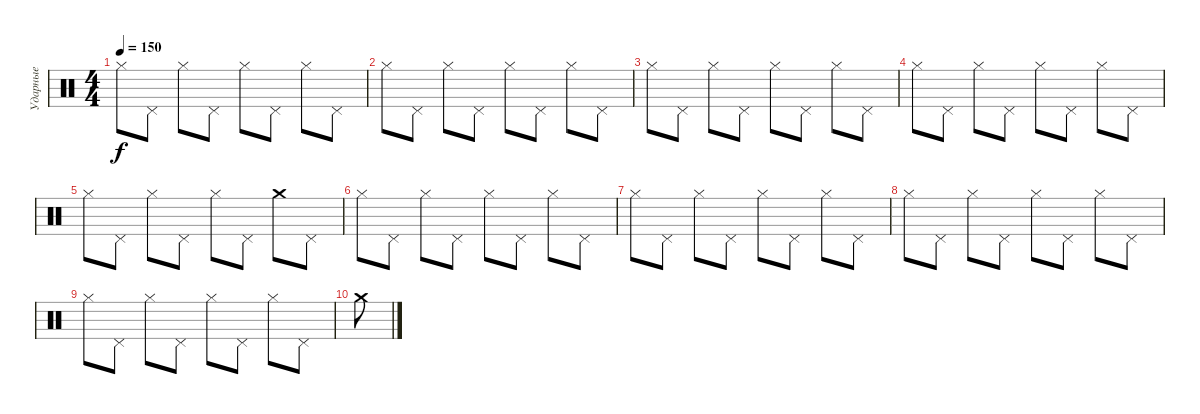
\track ("Ударные" "Ударные") {instrument percussion}
\staff {score}
\articulation defaults
\ts (4 4)
\tempo 150
\clef neutral
\ks c "Hi-Hat (closed)".8{dy f} "Pedal Hi-Hat (hit)".8 "Hi-Hat (closed)".8 "Pedal Hi-Hat (hit)".8 "Hi-Hat (closed)".8 "Pedal Hi-Hat (hit)".8 "Hi-Hat (closed)".8 "Pedal Hi-Hat (hit)".8
|
"Hi-Hat (closed)".8 "Pedal Hi-Hat (hit)".8 "Hi-Hat (closed)".8 "Pedal Hi-Hat (hit)".8 "Hi-Hat (closed)".8 "Pedal Hi-Hat (hit)".8 "Hi-Hat (closed)".8 "Pedal Hi-Hat (hit)".8 |
"Hi-Hat (closed)".8 "Pedal Hi-Hat (hit)".8 "Hi-Hat (closed)".8 "Pedal Hi-Hat (hit)".8 "Hi-Hat (closed)".8 "Pedal Hi-Hat (hit)".8 "Hi-Hat (closed)".8 "Pedal Hi-Hat (hit)".8 |
"Hi-Hat (closed)".8 "Pedal Hi-Hat (hit)".8 "Hi-Hat (closed)".8 "Pedal Hi-Hat (hit)".8 "Hi-Hat (closed)".8 "Pedal Hi-Hat (hit)".8 "Hi-Hat (closed)".8 "Pedal Hi-Hat (hit)".8 |
"Hi-Hat (closed)".8 "Pedal Hi-Hat (hit)".8 "Hi-Hat (closed)".8 "Pedal Hi-Hat (hit)".8 "Hi-Hat (closed)".8 "Pedal Hi-Hat (hit)".8 "Crash medium (hit)".8 "Pedal Hi-Hat (hit)".8 |
"Hi-Hat (closed)".8 "Pedal Hi-Hat (hit)".8 "Hi-Hat (closed)".8 "Pedal Hi-Hat (hit)".8 "Hi-Hat (closed)".8 "Pedal Hi-Hat (hit)".8 "Hi-Hat (closed)".8 "Pedal Hi-Hat (hit)".8 |
"Hi-Hat (closed)".8 "Pedal Hi-Hat (hit)".8 "Hi-Hat (closed)".8 "Pedal Hi-Hat (hit)".8 "Hi-Hat (closed)".8 "Pedal Hi-Hat (hit)".8 "Hi-Hat (closed)".8 "Pedal Hi-Hat (hit)".8 |
"Hi-Hat (closed)".8 "Pedal Hi-Hat (hit)".8 "Hi-Hat (closed)".8 "Pedal Hi-Hat (hit)".8 "Hi-Hat (closed)".8 "Pedal Hi-Hat (hit)".8 "Hi-Hat (closed)".8 "Pedal Hi-Hat (hit)".8 |
"Hi-Hat (closed)".8 "Pedal Hi-Hat (hit)".8 "Hi-Hat (closed)".8 "Pedal Hi-Hat (hit)".8 "Hi-Hat (closed)".8 "Pedal Hi-Hat (hit)".8 "Hi-Hat (closed)".8 "Pedal Hi-Hat (hit)".8 |
"Crash medium (hit)".8
